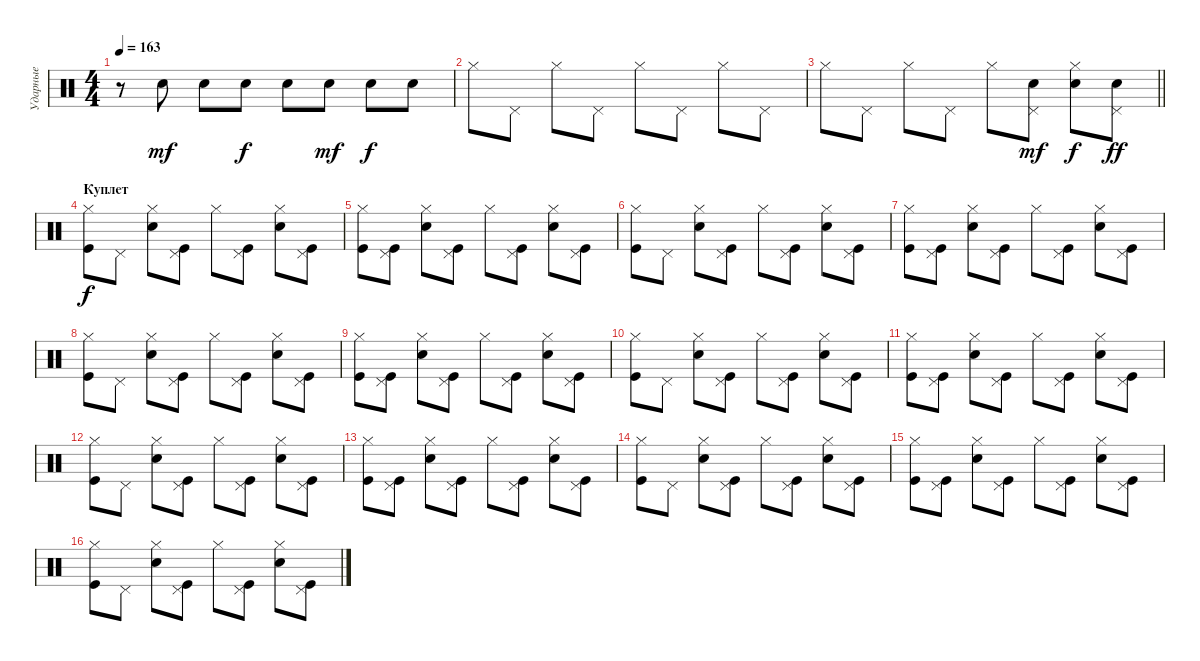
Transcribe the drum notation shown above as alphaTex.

\track ("Ударные" "Ударные") {instrument percussion}
\staff
\articulation defaults
\ts (4 4)
\tempo 163
\clef neutral
\ks c
r.8{dy f} "Snare (hit) 2".8{dy mf} "Snare (hit) 2".8 "Snare (hit) 2".8{dy f} "Snare (hit) 2".8 "Snare (hit) 2".8{dy mf} "Snare (hit) 2".8{dy f} "Snare (hit) 2".8 |
"Hi-Hat (closed)".8 "Pedal Hi-Hat (hit)".8 "Hi-Hat (closed)".8 "Pedal Hi-Hat (hit)".8 "Hi-Hat (closed)".8 "Pedal Hi-Hat (hit)".8 "Hi-Hat (closed)".8 "Pedal Hi-Hat (hit)".8 |
\barLineRight lightlight "Hi-Hat (closed)".8 "Pedal Hi-Hat (hit)".8 "Hi-Hat (closed)".8 "Pedal Hi-Hat (hit)".8 "Hi-Hat (closed)".8
("Pedal Hi-Hat (hit)" "Snare (hit) 2").8{dy mf} ("Hi-Hat (closed)" "Snare (hit) 2").8{dy f} ("Pedal Hi-Hat (hit)" "Snare (hit) 2").8{dy ff} |
\section ("" "Куплет")
("Hi-Hat (closed)" "Kick (hit)").8{dy f} "Pedal Hi-Hat (hit)".8 ("Hi-Hat (closed)" "Snare (hit) 2").8 ("Pedal Hi-Hat (hit)" "Kick (hit)").8 "Hi-Hat (closed)".8 ("Pedal Hi-Hat (hit)" "Kick (hit)").8 ("Hi-Hat (closed)" "Snare (hit) 2").8 ("Pedal Hi-Hat (hit)" "Kick (hit)").8 |
("Hi-Hat (closed)" "Kick (hit)").8 ("Pedal Hi-Hat (hit)" "Kick (hit)").8 ("Hi-Hat (closed)" "Snare (hit) 2").8 ("Pedal Hi-Hat (hit)" "Kick (hit)").8 "Hi-Hat (closed)".8 ("Pedal Hi-Hat (hit)" "Kick (hit)").8 ("Hi-Hat (closed)" "Snare (hit) 2").8 ("Pedal Hi-Hat (hit)" "Kick (hit)").8 |
("Hi-Hat (closed)" "Kick (hit)").8 "Pedal Hi-Hat (hit)".8 ("Hi-Hat (closed)" "Snare (hit) 2").8 ("Pedal Hi-Hat (hit)" "Kick (hit)").8 "Hi-Hat (closed)".8 ("Pedal Hi-Hat (hit)" "Kick (hit)").8 ("Hi-Hat (closed)" "Snare (hit) 2").8 ("Pedal Hi-Hat (hit)" "Kick (hit)").8 |
("Hi-Hat (closed)" "Kick (hit)").8 ("Pedal Hi-Hat (hit)" "Kick (hit)").8 ("Hi-Hat (closed)" "Snare (hit) 2").8 ("Pedal Hi-Hat (hit)" "Kick (hit)").8 "Hi-Hat (closed)".8 ("Pedal Hi-Hat (hit)" "Kick (hit)").8 ("Hi-Hat (closed)" "Snare (hit) 2").8 ("Pedal Hi-Hat (hit)" "Kick (hit)").8 |
("Hi-Hat (closed)" "Kick (hit)").8 "Pedal Hi-Hat (hit)".8 ("Hi-Hat (closed)" "Snare (hit) 2").8 ("Pedal Hi-Hat (hit)" "Kick (hit)").8 "Hi-Hat (closed)".8 ("Pedal Hi-Hat (hit)" "Kick (hit)").8 ("Hi-Hat (closed)" "Snare (hit) 2").8 ("Pedal Hi-Hat (hit)" "Kick (hit)").8 |
("Hi-Hat (closed)" "Kick (hit)").8 ("Pedal Hi-Hat (hit)" "Kick (hit)").8 ("Hi-Hat (closed)" "Snare (hit) 2").8 ("Pedal Hi-Hat (hit)" "Kick (hit)").8 "Hi-Hat (closed)".8 ("Pedal Hi-Hat (hit)" "Kick (hit)").8 ("Hi-Hat (closed)" "Snare (hit) 2").8 ("Pedal Hi-Hat (hit)" "Kick (hit)").8 |
("Hi-Hat (closed)" "Kick (hit)").8 "Pedal Hi-Hat (hit)".8 ("Hi-Hat (closed)" "Snare (hit) 2").8 ("Pedal Hi-Hat (hit)" "Kick (hit)").8 "Hi-Hat (closed)".8 ("Pedal Hi-Hat (hit)" "Kick (hit)").8 ("Hi-Hat (closed)" "Snare (hit) 2").8 ("Pedal Hi-Hat (hit)" "Kick (hit)").8 |
("Hi-Hat (closed)" "Kick (hit)").8 ("Pedal Hi-Hat (hit)" "Kick (hit)").8 ("Hi-Hat (closed)" "Snare (hit) 2").8 ("Pedal Hi-Hat (hit)" "Kick (hit)").8 "Hi-Hat (closed)".8 ("Pedal Hi-Hat (hit)" "Kick (hit)").8 ("Hi-Hat (closed)" "Snare (hit) 2").8 ("Pedal Hi-Hat (hit)" "Kick (hit)").8 |
("Hi-Hat (closed)" "Kick (hit)").8 "Pedal Hi-Hat (hit)".8 ("Hi-Hat (closed)" "Snare (hit) 2").8 ("Pedal Hi-Hat (hit)" "Kick (hit)").8 "Hi-Hat (closed)".8 ("Pedal Hi-Hat (hit)" "Kick (hit)").8 ("Hi-Hat (closed)" "Snare (hit) 2").8 ("Pedal Hi-Hat (hit)" "Kick (hit)").8 |
("Hi-Hat (closed)" "Kick (hit)").8 ("Pedal Hi-Hat (hit)" "Kick (hit)").8 ("Hi-Hat (closed)" "Snare (hit) 2").8 ("Pedal Hi-Hat (hit)" "Kick (hit)").8 "Hi-Hat (closed)".8 ("Pedal Hi-Hat (hit)" "Kick (hit)").8 ("Hi-Hat (closed)" "Snare (hit) 2").8 ("Pedal Hi-Hat (hit)" "Kick (hit)").8 |
("Hi-Hat (closed)" "Kick (hit)").8 "Pedal Hi-Hat (hit)".8 ("Hi-Hat (closed)" "Snare (hit) 2").8 ("Pedal Hi-Hat (hit)" "Kick (hit)").8 "Hi-Hat (closed)".8 ("Pedal Hi-Hat (hit)" "Kick (hit)").8 ("Hi-Hat (closed)" "Snare (hit) 2").8 ("Pedal Hi-Hat (hit)" "Kick (hit)").8 |
("Hi-Hat (closed)" "Kick (hit)").8 ("Pedal Hi-Hat (hit)" "Kick (hit)").8 ("Hi-Hat (closed)" "Snare (hit) 2").8 ("Pedal Hi-Hat (hit)" "Kick (hit)").8 "Hi-Hat (closed)".8 ("Pedal Hi-Hat (hit)" "Kick (hit)").8 ("Hi-Hat (closed)" "Snare (hit) 2").8 ("Pedal Hi-Hat (hit)" "Kick (hit)").8 |
("Hi-Hat (closed)" "Kick (hit)").8 "Pedal Hi-Hat (hit)".8 ("Hi-Hat (closed)" "Snare (hit) 2").8 ("Pedal Hi-Hat (hit)" "Kick (hit)").8 "Hi-Hat (closed)".8 ("Pedal Hi-Hat (hit)" "Kick (hit)").8 ("Hi-Hat (closed)" "Snare (hit) 2").8 ("Pedal Hi-Hat (hit)" "Kick (hit)").8
